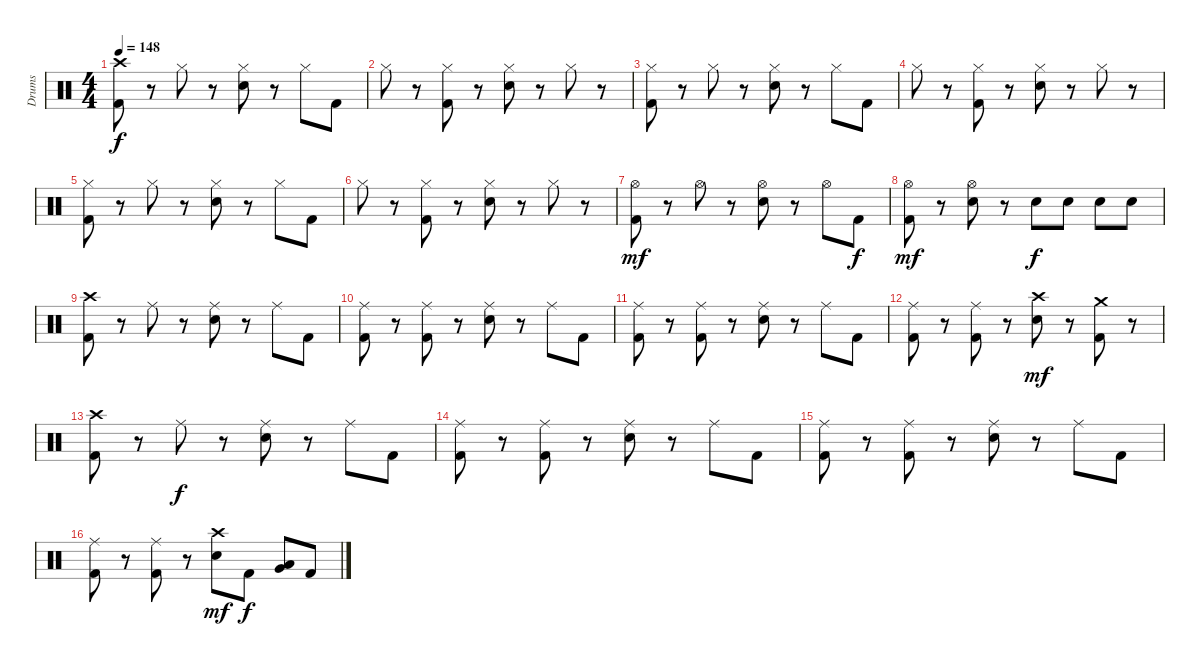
\track ("Drums" "Drums") {instrument percussion}
\staff {score}
\articulation defaults
\ts (4 4)
\tempo 148
\clef neutral
\ks c
("Crash high (hit)" "Kick (hit) 2").8{dy f} r.8 "Hi-Hat (closed)".8 r.8 ("Hi-Hat (closed)" "Snare (hit) 2").8 r.8 "Hi-Hat (closed)".8 "Kick (hit) 2".8 |
"Hi-Hat (closed)".8 r.8 ("Hi-Hat (closed)" "Kick (hit) 2").8 r.8 ("Hi-Hat (closed)" "Snare (hit) 2").8 r.8 "Hi-Hat (closed)".8 r.8 |
("Hi-Hat (closed)" "Kick (hit) 2").8 r.8 "Hi-Hat (closed)".8 r.8 ("Hi-Hat (closed)" "Snare (hit) 2").8 r.8 "Hi-Hat (closed)".8 "Kick (hit) 2".8 |
"Hi-Hat (closed)".8 r.8 ("Hi-Hat (closed)" "Kick (hit) 2").8 r.8 ("Hi-Hat (closed)" "Snare (hit) 2").8 r.8 "Hi-Hat (closed)".8 r.8 |
("Hi-Hat (closed)" "Kick (hit) 2").8 r.8 "Hi-Hat (closed)".8 r.8 ("Hi-Hat (closed)" "Snare (hit) 2").8 r.8 "Hi-Hat (closed)".8 "Kick (hit) 2".8 |
"Hi-Hat (closed)".8 r.8 ("Hi-Hat (closed)" "Kick (hit) 2").8 r.8 ("Hi-Hat (closed)" "Snare (hit) 2").8 r.8 "Hi-Hat (closed)".8 r.8 |
("Hi-Hat (open)" "Kick (hit) 2").8{dy mf} r.8 "Hi-Hat (open)".8 r.8 ("Hi-Hat (open)" "Snare (hit) 2").8 r.8 "Hi-Hat (open)".8 "Kick (hit) 2".8{dy f} |
("Hi-Hat (open)" "Kick (hit) 2").8{dy mf} r.8 ("Hi-Hat (open)" "Snare (hit) 2").8 r.8 "Snare (hit) 2".8{dy f} "Snare (hit) 2".8 "Snare (hit) 2".8 "Snare (hit) 2".8 |
("Crash high (hit)" "Kick (hit) 2").8 r.8 "Ride (middle)".8 r.8 ("Ride (middle)" "Snare (hit) 2").8 r.8 "Ride (middle)".8 "Kick (hit) 2".8 |
("Ride (middle)" "Kick (hit) 2").8 r.8 ("Ride (middle)" "Kick (hit) 2").8 r.8 ("Ride (middle)" "Snare (hit) 2").8 r.8 "Ride (middle)".8 "Kick (hit) 2".8 |
("Ride (middle)" "Kick (hit) 2").8 r.8 ("Ride (middle)" "Kick (hit) 2").8 r.8 ("Ride (middle)" "Snare (hit) 2").8 r.8 "Ride (middle)".8 "Kick (hit) 2".8 |
("Ride (middle)" "Kick (hit) 2").8 r.8 ("Ride (middle)" "Kick (hit) 2").8 r.8 ("Crash high (hit)" "Snare (hit) 2").8{dy mf} r.8 ("Crash medium (hit)" "Kick (hit) 2").8 r.8 |
("Crash high (hit)" "Kick (hit) 2").8 r.8 "Ride (middle)".8{dy f} r.8 ("Ride (middle)" "Snare (hit) 2").8 r.8 "Ride (middle)".8 "Kick (hit) 2".8 |
("Ride (middle)" "Kick (hit) 2").8 r.8 ("Ride (middle)" "Kick (hit) 2").8 r.8 ("Ride (middle)" "Snare (hit) 2").8 r.8 "Ride (middle)".8 "Kick (hit) 2".8 |
("Ride (middle)" "Kick (hit) 2").8 r.8 ("Ride (middle)" "Kick (hit) 2").8 r.8 ("Ride (middle)" "Snare (hit) 2").8 r.8 "Ride (middle)".8 "Kick (hit) 2".8 |
("Ride (middle)" "Kick (hit) 2").8 r.8 ("Ride (middle)" "Kick (hit) 2").8 r.8 ("Crash high (hit)" "Snare (hit) 2").8{dy mf} "Kick (hit) 2".8{dy f} ("Very Low Tom (hit)" "Low Floor Tom (hit)").8 "Kick (hit) 2".8
